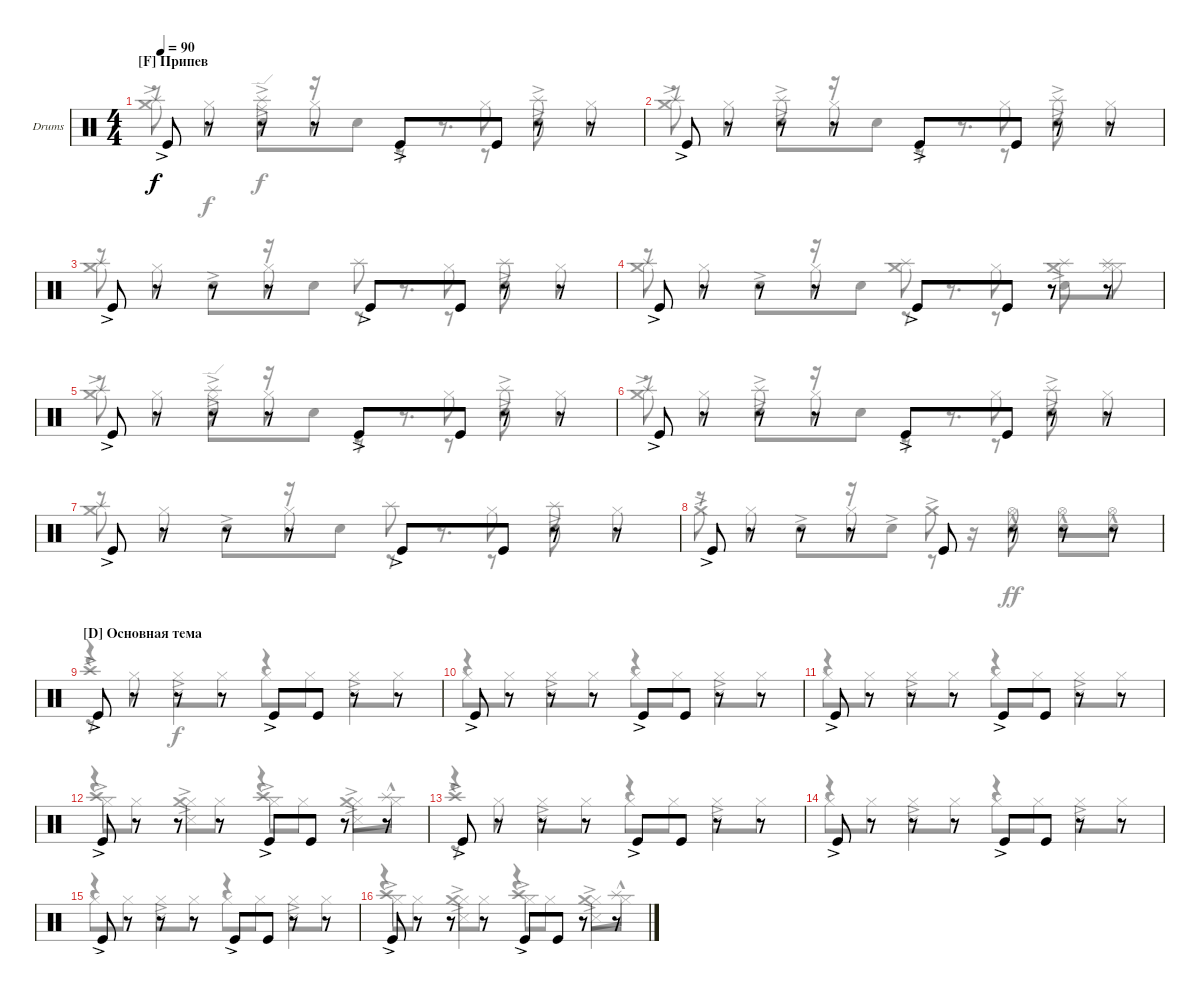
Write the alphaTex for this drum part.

\defaultSystemsLayout 4
\bracketExtendMode groupsimilarinstruments
\firstSystemTrackNameOrientation horizontal
\otherSystemsTrackNameOrientation horizontal
\track ("Drumkit" "Drums") {instrument percussion}
\staff {score}
\articulation defaults
\voice
\ts (4 4)
\section ("F" "Припев")
\tempo 90
\clef neutral
\scale
0.333333
\ks c "Kick (hit)"{ac}.8{dy f}
r.8 r.8 r.8 "Kick (hit)"{ac}.8 "Kick (hit)".8 r.8 r.8 |
\scale
0.333333 "Kick (hit)"{ac}.8 r.8 r.8 r.8 "Kick (hit)"{ac}.8 "Kick (hit)".8 r.8 r.8 |
\scale
0.333333 "Kick (hit)"{ac}.8 r.8 r.8 r.8 "Kick (hit)"{ac}.8 "Kick (hit)".8 r.8 r.8 |
\scale
0.333333 "Kick (hit)"{ac}.8 r.8 r.8 r.8 "Kick (hit)"{ac}.8 "Kick (hit)".8 r.8 r.8 |
\scale
0.333333 "Kick (hit)"{ac}.8 r.8 r.8 r.8 "Kick (hit)"{ac}.8 "Kick (hit)".8 r.8 r.8 |
\scale
0.333333 "Kick (hit)"{ac}.8 r.8 r.8 r.8 "Kick (hit)"{ac}.8 "Kick (hit)".8 r.8 r.8 |
\scale
0.333333 "Kick (hit)"{ac}.8 r.8 r.8 r.8 "Kick (hit)"{ac}.8 "Kick (hit)".8 r.8 r.8 |
\scale
0.333333 "Kick (hit)"{ac}.8 r.8 r.8 r.8 "Kick (hit)".8 r.8 r.8 r.8 |
\section ("D" "Основная тема")
\scale
0.333333 "Kick (hit)"{ac}.8 r.8 r.8 r.8 "Kick (hit)"{ac}.8 "Kick (hit)".8 r.8 r.8 |
\scale
0.333333 "Kick (hit)"{ac}.8 r.8 r.8 r.8 "Kick (hit)"{ac}.8 "Kick (hit)".8 r.8 r.8 |
\scale
0.333333 "Kick (hit)"{ac}.8 r.8 r.8 r.8 "Kick (hit)"{ac}.8 "Kick (hit)".8 r.8 r.8 |
\scale
0.333333 "Kick (hit)"{ac}.8 r.8 r.8 r.8 "Kick (hit)"{ac}.8 "Kick (hit)".8 r.8 r.8 |
\scale
0.333333 "Kick (hit)"{ac}.8 r.8 r.8 r.8 "Kick (hit)"{ac}.8 "Kick (hit)".8 r.8 r.8 |
\scale
0.333333 "Kick (hit)"{ac}.8 r.8 r.8 r.8 "Kick (hit)"{ac}.8 "Kick (hit)".8 r.8 r.8 |
\scale
0.333333 "Kick (hit)"{ac}.8 r.8 r.8 r.8 "Kick (hit)"{ac}.8 "Kick (hit)".8 r.8 r.8 |
\scale
0.333333 "Kick (hit)"{ac}.8 r.8 r.8 r.8 "Kick (hit)"{ac}.8 "Kick (hit)".8 r.8 r.8
\voice
\clef neutral
\ottava regular
\simile none
\scale
0.333333
\ks c
r.8{dy f} r.8 "Snare (hit) 2"{ac}.8 r.16 "Snare (hit) 2".8 r.8{d} "Snare (hit) 2"{ac}.8 r.8 |
\scale
0.333333 r.8 r.8 "Snare (hit) 2"{ac}.8 r.16 "Snare (hit) 2".8 r.8{d} "Snare (hit) 2"{ac}.8 r.8 |
\scale
0.333333 r.8 r.8 "Snare (hit) 2"{ac}.8 r.16 "Snare (hit) 2".8 r.8{d} "Snare (hit) 2"{ac}.8 r.8 |
\scale
0.333333 r.8 r.8 "Snare (hit) 2"{ac}.8 r.16 "Snare (hit) 2".8 r.8{d} "Snare (hit) 2"{ac}.8 r.8 |
\scale
0.333333 r.8 r.8 "Snare (hit) 2"{ac}.8 r.16 "Snare (hit) 2".8 r.8{d} "Snare (hit) 2"{ac}.8 r.8 |
\scale
0.333333 r.8 r.8 "Snare (hit) 2"{ac}.8 r.16 "Snare (hit) 2".8 r.8{d} "Snare (hit) 2"{ac}.8 r.8 |
\scale
0.333333 r.8 r.8 "Snare (hit) 2"{ac}.8 r.16 "Snare (hit) 2".8 r.8{d} "Snare (hit) 2"{ac}.8 r.8 |
\scale
0.333333 r.8 r.8 "Snare (hit) 2"{ac}.8 r.16 "Snare (hit) 2"{ac}.8 r.16 "Snare (hit) 2"{hac}.8{dy ff} "Snare (hit) 2"{hac}.8 "Snare (hit) 2"{hac}.8 |
\scale
0.333333 r.4 "Snare (side stick) 3"{ac}.4{dy f} r.4 "Snare (side stick) 3"{ac}.4 |
\scale
0.333333 r.4 "Snare (side stick) 3"{ac}.4 r.4 "Snare (side stick) 3"{ac}.4 |
\scale
0.333333 r.4 "Snare (side stick) 3"{ac}.4 r.4 "Snare (side stick) 3"{ac}.4 |
\scale
0.333333 r.4 "Snare (side stick) 3"{ac}.4 r.4 "Snare (side stick) 3"{ac}.4 |
\scale
0.333333 r.4 "Snare (side stick) 3"{ac}.4 r.4 "Snare (side stick) 3"{ac}.4 |
\scale
0.333333 r.4 "Snare (side stick) 3"{ac}.4 r.4 "Snare (side stick) 3"{ac}.4 |
\scale
0.333333 r.4 "Snare (side stick) 3"{ac}.4 r.4 "Snare (side stick) 3"{ac}.4 |
\scale
0.333333 r.4 "Snare (side stick) 3"{ac}.4 r.4 "Snare (side stick) 3"{ac}.4
\voice
\clef neutral
\ottava regular
\simile none
\scale
0.333333
\ks c
r.8{dy f} "Hi-Hat (closed)".8 r.8 "Hi-Hat (closed)".8 r.8 "Hi-Hat (closed)".8 r.8 "Hi-Hat (closed)".8 |
\scale
0.333333 r.8 "Hi-Hat (closed)".8 r.8 "Hi-Hat (closed)".8 r.8 "Hi-Hat (closed)".8 r.8 "Hi-Hat (closed)".8 |
\scale
0.333333 r.8 "Hi-Hat (closed)".8 r.8 "Hi-Hat (closed)".8 r.8 "Hi-Hat (closed)".8 r.8 "Hi-Hat (closed)".8 |
\scale
0.333333 r.8 "Hi-Hat (closed)".8 r.8 "Hi-Hat (closed)".8 r.8 "Hi-Hat (closed)".8 r.8 "Hi-Hat (closed)".8 |
\scale
0.333333 r.8 "Hi-Hat (closed)".8 r.8 "Hi-Hat (closed)".8 r.8 "Hi-Hat (closed)".8 r.8 "Hi-Hat (closed)".8 |
\scale
0.333333 r.8 "Hi-Hat (closed)".8 r.8 "Hi-Hat (closed)".8 r.8 "Hi-Hat (closed)".8 r.8 "Hi-Hat (closed)".8 |
\scale
0.333333 r.8 "Hi-Hat (closed)".8 r.8 "Hi-Hat (closed)".8 r.8 "Hi-Hat (closed)".8 r.8 "Hi-Hat (closed)".8 |
\scale
0.333333 r.8 "Hi-Hat (closed)".8 r.8 "Hi-Hat (closed)".8 r.8 "Hi-Hat (open)".8 "Hi-Hat (open)".8 "Hi-Hat (open)".8 |
\scale
0.333333 r.8 "Hi-Hat (closed)".8 "Hi-Hat (closed)".8 "Hi-Hat (closed)".8 "Hi-Hat (closed)".8 "Hi-Hat (closed)".8 "Hi-Hat (closed)".8 "Hi-Hat (closed)".8 |
\scale
0.333333 "Hi-Hat (closed)".8 "Hi-Hat (closed)".8 "Hi-Hat (closed)".8 "Hi-Hat (closed)".8 "Hi-Hat (closed)".8 "Hi-Hat (closed)".8 "Hi-Hat (closed)".8 "Hi-Hat (closed)".8 |
\scale
0.333333 "Hi-Hat (closed)".8 "Hi-Hat (closed)".8 "Hi-Hat (closed)".8 "Hi-Hat (closed)".8 "Hi-Hat (closed)".8 "Hi-Hat (closed)".8 "Hi-Hat (closed)".8 "Hi-Hat (closed)".8 |
\scale
0.333333 "Hi-Hat (closed)".8 "Hi-Hat (closed)".8 "Hi-Hat (closed)".8 "Hi-Hat (closed)".8 "Hi-Hat (closed)".8 "Hi-Hat (closed)".8 "Hi-Hat (closed)".8 "Hi-Hat (closed)".8 |
\scale
0.333333 r.8 "Hi-Hat (closed)".8 "Hi-Hat (closed)".8 "Hi-Hat (closed)".8 "Hi-Hat (closed)".8 "Hi-Hat (closed)".8 "Hi-Hat (closed)".8 "Hi-Hat (closed)".8 |
\scale
0.333333 "Hi-Hat (closed)".8 "Hi-Hat (closed)".8 "Hi-Hat (closed)".8 "Hi-Hat (closed)".8 "Hi-Hat (closed)".8 "Hi-Hat (closed)".8 "Hi-Hat (closed)".8 "Hi-Hat (closed)".8 |
\scale
0.333333 "Hi-Hat (closed)".8 "Hi-Hat (closed)".8 "Hi-Hat (closed)".8 "Hi-Hat (closed)".8 "Hi-Hat (closed)".8 "Hi-Hat (closed)".8 "Hi-Hat (closed)".8 "Hi-Hat (closed)".8 |
\scale
0.333333 "Hi-Hat (closed)".8 "Hi-Hat (closed)".8 "Hi-Hat (closed)".8 "Hi-Hat (closed)".8 "Hi-Hat (closed)".8 "Hi-Hat (closed)".8 "Hi-Hat (closed)".8 "Hi-Hat (closed)".8
\voice
\clef neutral
\ottava regular
\simile none
\scale
0.333333
\ks c
("Splash (hit)"{ac} "Crash medium (hit)"{ac}).8{dy f} r.8 ("Splash (hit)"{ac} "Ride (edge)"{ac}).8 r.8 r.8 r.8 "Splash (hit)"{ac}.8 r.8 |
\scale
0.333333 ("Splash (hit)"{ac} "Crash medium (hit)"{ac}).8 r.8 "Splash (hit)"{ac}.8 r.8 r.8 r.8 "Splash (hit)"{ac}.8 r.8 |
\scale
0.333333 ("Splash (hit)" "Crash medium (hit)").8 r.8 r.8 r.8 "Splash (hit)".8 r.8 "Splash (hit)".8 r.8 |
\scale
0.333333 ("Splash (hit)" "Crash medium (hit)").8 r.8 r.8 r.8 ("Splash (hit)" "Crash medium (hit)").8 r.8 ("Splash (hit)" "Crash medium (hit)").8 ("Hi-Hat (closed)" "Splash (hit)").8 |
\scale
0.333333 ("Splash (hit)"{ac} "Crash medium (hit)"{ac}).8 r.8 ("Splash (hit)"{ac} "Ride (edge)"{ac}).8 r.8 r.8 r.8 "Splash (hit)"{ac}.8 r.8 |
\scale
0.333333 ("Splash (hit)"{ac} "Crash medium (hit)"{ac}).8 r.8 "Splash (hit)"{ac}.8 r.8 r.8 r.8 "Splash (hit)"{ac}.8 r.8 |
\scale
0.333333 ("Splash (hit)" "Crash medium (hit)").8 r.8 r.8 r.8 "Splash (hit)".8 r.8 "Splash (hit)".8 r.8 |
\scale
0.333333 "Crash medium (hit)"{ac}.8 r.8 r.8 r.8 "Crash medium (hit)"{ac}.8 r.8 r.8 r.8 |
\scale
0.333333 "Crash high (hit)"{ac}.1 |
\scale
0.333333 |
\scale
0.333333 |
\scale
0.333333 "Crash high (hit)"{ac}.4 "Crash medium (hit)"{ac}.4 "Crash high (hit)"{ac}.4 "Crash medium (hit)"{ac}.8 "Splash (hit)"{hac}.8 |
\scale
0.333333 "Crash high (hit)"{ac}.1 |
\scale
0.333333 |
\scale
0.333333 |
\scale
0.333333 "Crash high (hit)"{ac}.4 "Crash medium (hit)"{ac}.4 "Crash high (hit)"{ac}.4 "Crash medium (hit)"{ac}.8 "Splash (hit)"{hac}.8
